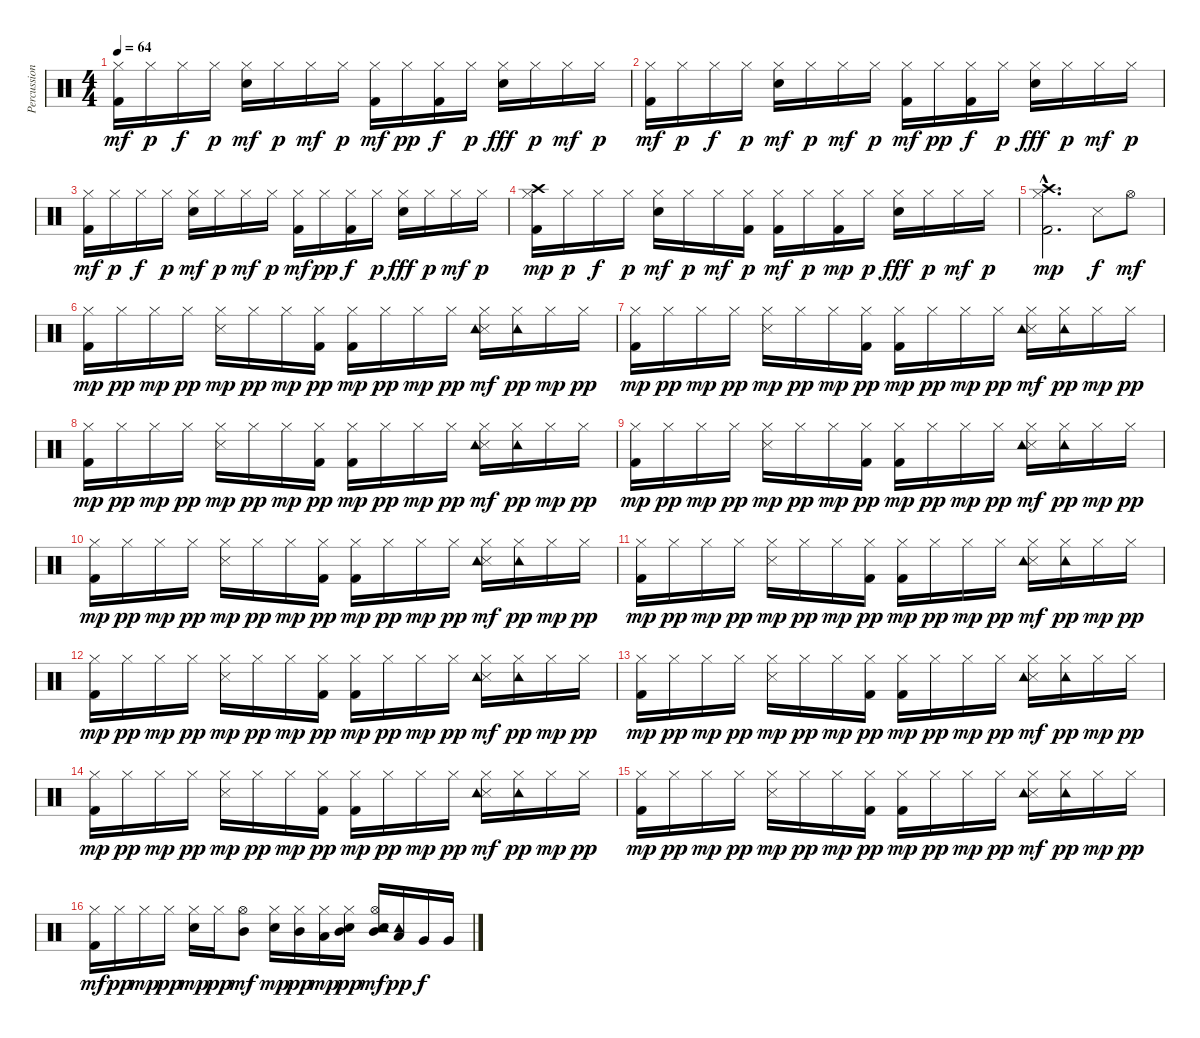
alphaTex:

\track ("Percussioni" "Percussion") {instrument percussion}
\staff {score}
\articulation defaults
\ts (4 4)
\tempo 64
\clef neutral
\ks c
("Kick (hit) 2" "Hi-Hat (closed)").16{dy mf} "Hi-Hat (closed)".16{dy p} "Hi-Hat (closed)".16{dy f} "Hi-Hat (closed)".16{dy p} ("Electric Snare (hit)" "Hi-Hat (closed)").16{dy mf} "Hi-Hat (closed)".16{dy p} "Hi-Hat (closed)".16{dy mf} "Hi-Hat (closed)".16{dy p} ("Kick (hit) 2" "Hi-Hat (closed)").16{dy mf} "Hi-Hat (closed)".16{dy pp} ("Kick (hit) 2" "Hi-Hat (closed)").16{dy f} "Hi-Hat (closed)".16{dy p} ("Electric Snare (hit)" "Hi-Hat (closed)").16{dy fff} "Hi-Hat (closed)".16{dy p} "Hi-Hat (closed)".16{dy mf} "Hi-Hat (closed)".16{dy p} |
("Kick (hit) 2" "Hi-Hat (closed)").16{dy mf} "Hi-Hat (closed)".16{dy p} "Hi-Hat (closed)".16{dy f} "Hi-Hat (closed)".16{dy p} ("Electric Snare (hit)" "Hi-Hat (closed)").16{dy mf} "Hi-Hat (closed)".16{dy p} "Hi-Hat (closed)".16{dy mf} "Hi-Hat (closed)".16{dy p} ("Kick (hit) 2" "Hi-Hat (closed)").16{dy mf} "Hi-Hat (closed)".16{dy pp} ("Kick (hit) 2" "Hi-Hat (closed)").16{dy f} "Hi-Hat (closed)".16{dy p} ("Electric Snare (hit)" "Hi-Hat (closed)").16{dy fff} "Hi-Hat (closed)".16{dy p} "Hi-Hat (closed)".16{dy mf} "Hi-Hat (closed)".16{dy p} |
("Kick (hit) 2" "Hi-Hat (closed)").16{dy mf} "Hi-Hat (closed)".16{dy p} "Hi-Hat (closed)".16{dy f} "Hi-Hat (closed)".16{dy p} ("Electric Snare (hit)" "Hi-Hat (closed)").16{dy mf} "Hi-Hat (closed)".16{dy p} "Hi-Hat (closed)".16{dy mf} "Hi-Hat (closed)".16{dy p} ("Kick (hit) 2" "Hi-Hat (closed)").16{dy mf} "Hi-Hat (closed)".16{dy pp} ("Kick (hit) 2" "Hi-Hat (closed)").16{dy f} "Hi-Hat (closed)".16{dy p} ("Electric Snare (hit)" "Hi-Hat (closed)").16{dy fff} "Hi-Hat (closed)".16{dy p} "Hi-Hat (closed)".16{dy mf} "Hi-Hat (closed)".16{dy p} |
("Kick (hit) 2" "Hi-Hat (closed)" "Crash high (hit)").16{dy mp} "Hi-Hat (closed)".16{dy p} "Hi-Hat (closed)".16{dy f} "Hi-Hat (closed)".16{dy p} ("Electric Snare (hit)" "Hi-Hat (closed)").16{dy mf} "Hi-Hat (closed)".16{dy p} "Hi-Hat (closed)".16{dy mf} ("Kick (hit) 2" "Hi-Hat (closed)").16{dy p} ("Kick (hit) 2" "Hi-Hat (closed)").16{dy mf} "Hi-Hat (closed)".16{dy p} ("Kick (hit) 2" "Hi-Hat (closed)").16{dy mp} "Hi-Hat (closed)".16{dy p} ("Electric Snare (hit)" "Hi-Hat (closed)").16{dy fff} "Hi-Hat (closed)".16{dy p} "Hi-Hat (closed)".16{dy mf} "Hi-Hat (closed)".16{dy p} |
("Kick (hit) 2"{hac} "Hi-Hat (closed)"{hac} "Crash high (hit)"{hac}).2{d dy mp} "Snare (side stick) 3".8{dy f} "Hi-Hat (open)".8{dy mf} |
("Kick (hit) 2" "Hi-Hat (closed)").16{dy mp} "Hi-Hat (closed)".16{dy pp} "Hi-Hat (closed)".16{dy mp} "Hi-Hat (closed)".16{dy pp} ("Snare (side stick) 3" "Hi-Hat (closed)").16{dy mp} "Hi-Hat (closed)".16{dy pp} "Hi-Hat (closed)".16{dy mp} ("Kick (hit) 2" "Hi-Hat (closed)").16{dy pp} ("Kick (hit) 2" "Hi-Hat (closed)").16{dy mp} "Hi-Hat (closed)".16{dy pp} "Hi-Hat (closed)".16{dy mp} "Hi-Hat (closed)".16{dy pp} ("Snare (side stick) 3" "Hi-Hat (closed)" "Tambourine (hit)").16{dy mf} ("Hi-Hat (closed)" "Tambourine (hit)").16{dy pp} "Hi-Hat (closed)".16{dy mp} "Hi-Hat (closed)".16{dy pp} |
("Kick (hit) 2" "Hi-Hat (closed)").16{dy mp} "Hi-Hat (closed)".16{dy pp} "Hi-Hat (closed)".16{dy mp} "Hi-Hat (closed)".16{dy pp} ("Snare (side stick) 3" "Hi-Hat (closed)").16{dy mp} "Hi-Hat (closed)".16{dy pp} "Hi-Hat (closed)".16{dy mp} ("Kick (hit) 2" "Hi-Hat (closed)").16{dy pp} ("Kick (hit) 2" "Hi-Hat (closed)").16{dy mp} "Hi-Hat (closed)".16{dy pp} "Hi-Hat (closed)".16{dy mp} "Hi-Hat (closed)".16{dy pp} ("Snare (side stick) 3" "Hi-Hat (closed)" "Tambourine (hit)").16{dy mf} ("Hi-Hat (closed)" "Tambourine (hit)").16{dy pp} "Hi-Hat (closed)".16{dy mp} "Hi-Hat (closed)".16{dy pp} |
("Kick (hit) 2" "Hi-Hat (closed)").16{dy mp} "Hi-Hat (closed)".16{dy pp} "Hi-Hat (closed)".16{dy mp} "Hi-Hat (closed)".16{dy pp} ("Snare (side stick) 3" "Hi-Hat (closed)").16{dy mp} "Hi-Hat (closed)".16{dy pp} "Hi-Hat (closed)".16{dy mp} ("Kick (hit) 2" "Hi-Hat (closed)").16{dy pp} ("Kick (hit) 2" "Hi-Hat (closed)").16{dy mp} "Hi-Hat (closed)".16{dy pp} "Hi-Hat (closed)".16{dy mp} "Hi-Hat (closed)".16{dy pp} ("Snare (side stick) 3" "Hi-Hat (closed)" "Tambourine (hit)").16{dy mf} ("Hi-Hat (closed)" "Tambourine (hit)").16{dy pp} "Hi-Hat (closed)".16{dy mp} "Hi-Hat (closed)".16{dy pp} |
("Kick (hit) 2" "Hi-Hat (closed)").16{dy mp} "Hi-Hat (closed)".16{dy pp} "Hi-Hat (closed)".16{dy mp} "Hi-Hat (closed)".16{dy pp} ("Snare (side stick) 3" "Hi-Hat (closed)").16{dy mp} "Hi-Hat (closed)".16{dy pp} "Hi-Hat (closed)".16{dy mp} ("Kick (hit) 2" "Hi-Hat (closed)").16{dy pp} ("Kick (hit) 2" "Hi-Hat (closed)").16{dy mp} "Hi-Hat (closed)".16{dy pp} "Hi-Hat (closed)".16{dy mp} "Hi-Hat (closed)".16{dy pp} ("Snare (side stick) 3" "Hi-Hat (closed)" "Tambourine (hit)").16{dy mf} ("Hi-Hat (closed)" "Tambourine (hit)").16{dy pp} "Hi-Hat (closed)".16{dy mp} "Hi-Hat (closed)".16{dy pp} |
("Kick (hit) 2" "Hi-Hat (closed)").16{dy mp} "Hi-Hat (closed)".16{dy pp} "Hi-Hat (closed)".16{dy mp} "Hi-Hat (closed)".16{dy pp} ("Snare (side stick) 3" "Hi-Hat (closed)").16{dy mp} "Hi-Hat (closed)".16{dy pp} "Hi-Hat (closed)".16{dy mp} ("Kick (hit) 2" "Hi-Hat (closed)").16{dy pp} ("Kick (hit) 2" "Hi-Hat (closed)").16{dy mp} "Hi-Hat (closed)".16{dy pp} "Hi-Hat (closed)".16{dy mp} "Hi-Hat (closed)".16{dy pp} ("Snare (side stick) 3" "Hi-Hat (closed)" "Tambourine (hit)").16{dy mf} ("Hi-Hat (closed)" "Tambourine (hit)").16{dy pp} "Hi-Hat (closed)".16{dy mp} "Hi-Hat (closed)".16{dy pp} |
("Kick (hit) 2" "Hi-Hat (closed)").16{dy mp} "Hi-Hat (closed)".16{dy pp} "Hi-Hat (closed)".16{dy mp} "Hi-Hat (closed)".16{dy pp} ("Snare (side stick) 3" "Hi-Hat (closed)").16{dy mp} "Hi-Hat (closed)".16{dy pp} "Hi-Hat (closed)".16{dy mp} ("Kick (hit) 2" "Hi-Hat (closed)").16{dy pp} ("Kick (hit) 2" "Hi-Hat (closed)").16{dy mp} "Hi-Hat (closed)".16{dy pp} "Hi-Hat (closed)".16{dy mp} "Hi-Hat (closed)".16{dy pp} ("Snare (side stick) 3" "Hi-Hat (closed)" "Tambourine (hit)").16{dy mf} ("Hi-Hat (closed)" "Tambourine (hit)").16{dy pp} "Hi-Hat (closed)".16{dy mp} "Hi-Hat (closed)".16{dy pp} |
("Kick (hit) 2" "Hi-Hat (closed)").16{dy mp} "Hi-Hat (closed)".16{dy pp} "Hi-Hat (closed)".16{dy mp} "Hi-Hat (closed)".16{dy pp} ("Snare (side stick) 3" "Hi-Hat (closed)").16{dy mp} "Hi-Hat (closed)".16{dy pp} "Hi-Hat (closed)".16{dy mp} ("Kick (hit) 2" "Hi-Hat (closed)").16{dy pp} ("Kick (hit) 2" "Hi-Hat (closed)").16{dy mp} "Hi-Hat (closed)".16{dy pp} "Hi-Hat (closed)".16{dy mp} "Hi-Hat (closed)".16{dy pp} ("Snare (side stick) 3" "Hi-Hat (closed)" "Tambourine (hit)").16{dy mf} ("Hi-Hat (closed)" "Tambourine (hit)").16{dy pp} "Hi-Hat (closed)".16{dy mp} "Hi-Hat (closed)".16{dy pp} |
("Kick (hit) 2" "Hi-Hat (closed)").16{dy mp} "Hi-Hat (closed)".16{dy pp} "Hi-Hat (closed)".16{dy mp} "Hi-Hat (closed)".16{dy pp} ("Snare (side stick) 3" "Hi-Hat (closed)").16{dy mp} "Hi-Hat (closed)".16{dy pp} "Hi-Hat (closed)".16{dy mp} ("Kick (hit) 2" "Hi-Hat (closed)").16{dy pp} ("Kick (hit) 2" "Hi-Hat (closed)").16{dy mp} "Hi-Hat (closed)".16{dy pp} "Hi-Hat (closed)".16{dy mp} "Hi-Hat (closed)".16{dy pp} ("Snare (side stick) 3" "Hi-Hat (closed)" "Tambourine (hit)").16{dy mf} ("Hi-Hat (closed)" "Tambourine (hit)").16{dy pp} "Hi-Hat (closed)".16{dy mp} "Hi-Hat (closed)".16{dy pp} |
("Kick (hit) 2" "Hi-Hat (closed)").16{dy mp} "Hi-Hat (closed)".16{dy pp} "Hi-Hat (closed)".16{dy mp} "Hi-Hat (closed)".16{dy pp} ("Snare (side stick) 3" "Hi-Hat (closed)").16{dy mp} "Hi-Hat (closed)".16{dy pp} "Hi-Hat (closed)".16{dy mp} ("Kick (hit) 2" "Hi-Hat (closed)").16{dy pp} ("Kick (hit) 2" "Hi-Hat (closed)").16{dy mp} "Hi-Hat (closed)".16{dy pp} "Hi-Hat (closed)".16{dy mp} "Hi-Hat (closed)".16{dy pp} ("Snare (side stick) 3" "Hi-Hat (closed)" "Tambourine (hit)").16{dy mf} ("Hi-Hat (closed)" "Tambourine (hit)").16{dy pp} "Hi-Hat (closed)".16{dy mp} "Hi-Hat (closed)".16{dy pp} |
("Kick (hit) 2" "Hi-Hat (closed)").16{dy mp} "Hi-Hat (closed)".16{dy pp} "Hi-Hat (closed)".16{dy mp} "Hi-Hat (closed)".16{dy pp} ("Snare (side stick) 3" "Hi-Hat (closed)").16{dy mp} "Hi-Hat (closed)".16{dy pp} "Hi-Hat (closed)".16{dy mp} ("Kick (hit) 2" "Hi-Hat (closed)").16{dy pp} ("Kick (hit) 2" "Hi-Hat (closed)").16{dy mp} "Hi-Hat (closed)".16{dy pp} "Hi-Hat (closed)".16{dy mp} "Hi-Hat (closed)".16{dy pp} ("Snare (side stick) 3" "Hi-Hat (closed)" "Tambourine (hit)").16{dy mf} ("Hi-Hat (closed)" "Tambourine (hit)").16{dy pp} "Hi-Hat (closed)".16{dy mp} "Hi-Hat (closed)".16{dy pp} |
("Kick (hit) 2" "Hi-Hat (closed)").16{dy mf} "Hi-Hat (closed)".16{dy pp} "Hi-Hat (closed)".16{dy mp} "Hi-Hat (closed)".16{dy pp} ("Electric Snare (hit)" "Hi-Hat (closed)").16{dy mp} "Hi-Hat (closed)".16{dy pp} ("Hi-Hat (open)" "Mid Tom (hit)").8{dy mf} ("Electric Snare (hit)" "Hi-Hat (closed)").16{dy mp} ("Hi-Hat (closed)" "Mid Tom (hit)").16{dy pp} ("Hi-Hat (closed)" "Low Tom (hit)").16{dy mp} ("Electric Snare (hit)" "Hi-Hat (closed)" "Mid Tom (hit)").16{dy pp} ("Electric Snare (hit)" "Hi-Hat (open)" "Mid Tom (hit)" "Tambourine (hit)").16{dy mf} ("Low Tom (hit)" "Tambourine (hit)").16{dy pp} "Very Low Tom (hit)".16{dy f} "Very Low Tom (hit)".16
